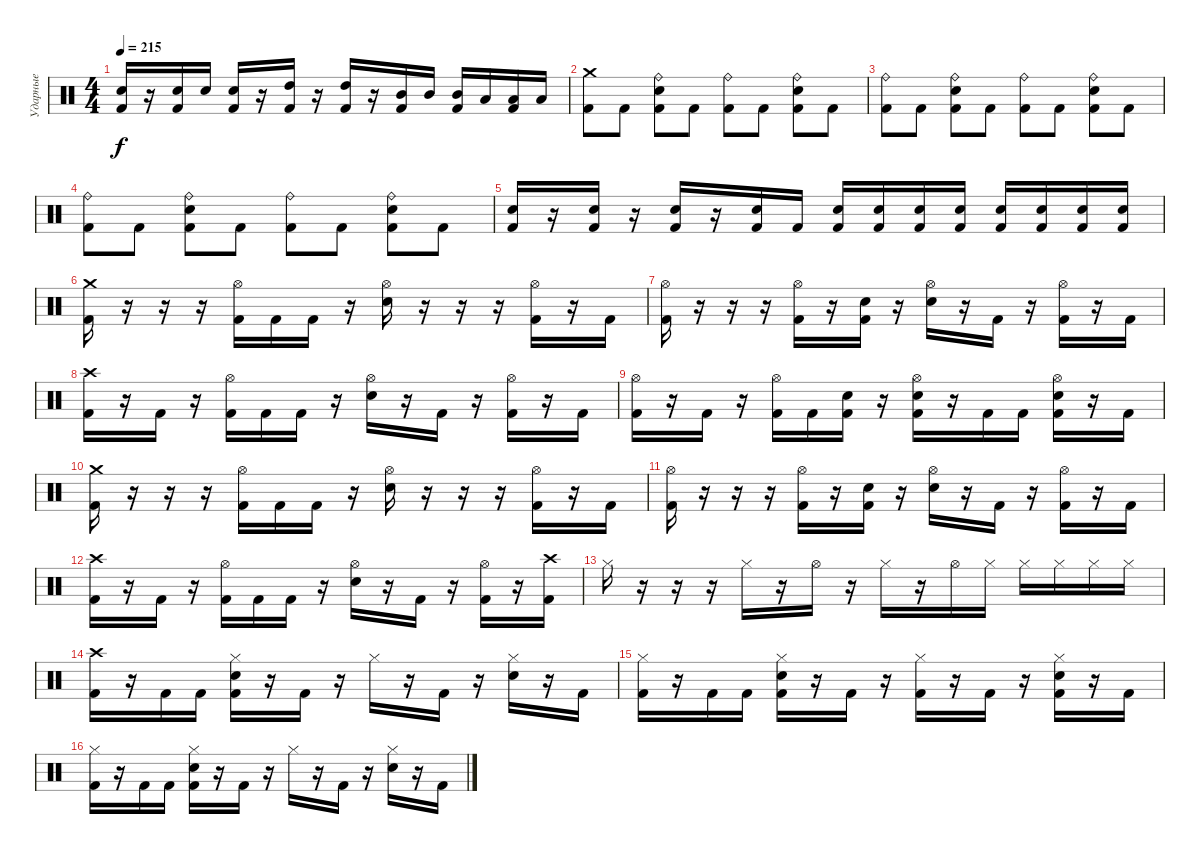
\track ("Ударные" "Ударные") {instrument percussion}
\staff {score}
\articulation defaults
\ts (4 4)
\tempo 215
\clef neutral
\ks c
("Snare (hit) 2" "Kick (hit) 2").16{dy f} r.16 ("Snare (hit) 2" "Kick (hit) 2").16 "Snare (hit) 2".16 ("Snare (hit) 2" "Kick (hit) 2").16 r.16 ("High Tom (hit)" "Kick (hit) 2").16 r.16 ("High Tom (hit)" "Kick (hit) 2").16 r.16 ("Mid Tom (hit)" "Kick (hit) 2").16 "Mid Tom (hit)".16 ("Mid Tom (hit)" "Kick (hit) 2").16 "Low Tom (hit)".16 ("Low Tom (hit)" "Kick (hit) 2").16 "Low Tom (hit)".16 |
("Crash medium (hit)" "Kick (hit) 2").8 "Kick (hit) 2".8 ("Ride (bell)" "Snare (hit) 2" "Kick (hit) 2").8 "Kick (hit) 2".8 ("Ride (bell)" "Kick (hit) 2").8 "Kick (hit) 2".8 ("Ride (bell)" "Snare (hit) 2" "Kick (hit) 2").8 "Kick (hit) 2".8 |
("Ride (bell)" "Kick (hit) 2").8 "Kick (hit) 2".8 ("Ride (bell)" "Snare (hit) 2" "Kick (hit) 2").8 "Kick (hit) 2".8 ("Ride (bell)" "Kick (hit) 2").8 "Kick (hit) 2".8 ("Ride (bell)" "Snare (hit) 2" "Kick (hit) 2").8 "Kick (hit) 2".8 |
("Ride (bell)" "Kick (hit) 2").8 "Kick (hit) 2".8 ("Ride (bell)" "Snare (hit) 2" "Kick (hit) 2").8 "Kick (hit) 2".8 ("Ride (bell)" "Kick (hit) 2").8 "Kick (hit) 2".8 ("Ride (bell)" "Snare (hit) 2" "Kick (hit) 2").8 "Kick (hit) 2".8 |
("Snare (hit) 2" "Kick (hit) 2").16 r.16 ("Snare (hit) 2" "Kick (hit) 2").16 r.16 ("Snare (hit) 2" "Kick (hit) 2").16 r.16 ("Snare (hit) 2" "Kick (hit) 2").16 "Kick (hit) 2".16 ("Snare (hit) 2" "Kick (hit) 2").16 ("Snare (hit) 2" "Kick (hit) 2").16 ("Snare (hit) 2" "Kick (hit) 2").16 ("Snare (hit) 2" "Kick (hit) 2").16 ("Snare (hit) 2" "Kick (hit) 2").16 ("Snare (hit) 2" "Kick (hit) 2").16 ("Snare (hit) 2" "Kick (hit) 2").16 ("Snare (hit) 2" "Kick (hit) 2").16 |
("Crash medium (hit)" "Kick (hit) 2").16 r.16 r.16 r.16 ("Hi-Hat (open)" "Kick (hit) 2").16 "Kick (hit) 2".16 "Kick (hit) 2".16 r.16 ("Hi-Hat (open)" "Snare (hit) 2").16 r.16 r.16 r.16 ("Hi-Hat (open)" "Kick (hit) 2").16 r.16 "Kick (hit) 2".16 |
("Hi-Hat (open)" "Kick (hit) 2").16 r.16 r.16 r.16 ("Hi-Hat (open)" "Kick (hit) 2").16 r.16 ("Snare (hit) 2" "Kick (hit) 2").16 r.16 ("Hi-Hat (open)" "Snare (hit) 2").16 r.16 "Kick (hit) 2".16 r.16 ("Hi-Hat (open)" "Kick (hit) 2").16 r.16 "Kick (hit) 2".16 |
("Crash high (hit)" "Kick (hit) 2").16 r.16 "Kick (hit) 2".16 r.16 ("Hi-Hat (open)" "Kick (hit) 2").16 "Kick (hit) 2".16 "Kick (hit) 2".16 r.16 ("Hi-Hat (open)" "Snare (hit) 2").16 r.16 "Kick (hit) 2".16 r.16 ("Hi-Hat (open)" "Kick (hit) 2").16 r.16 "Kick (hit) 2".16 |
("Hi-Hat (open)" "Kick (hit) 2").16 r.16 "Kick (hit) 2".16 r.16 ("Hi-Hat (open)" "Kick (hit) 2").16 "Kick (hit) 2".16 ("Snare (hit) 2" "Kick (hit) 2").16 r.16 ("Hi-Hat (open)" "Snare (hit) 2" "Kick (hit) 2").16 r.16 "Kick (hit) 2".16 "Kick (hit) 2".16 ("Hi-Hat (open)" "Snare (hit) 2" "Kick (hit) 2").16 r.16 "Kick (hit) 2".16 |
("Crash medium (hit)" "Kick (hit) 2").16 r.16 r.16 r.16 ("Hi-Hat (open)" "Kick (hit) 2").16 "Kick (hit) 2".16 "Kick (hit) 2".16 r.16 ("Hi-Hat (open)" "Snare (hit) 2").16 r.16 r.16 r.16 ("Hi-Hat (open)" "Kick (hit) 2").16 r.16 "Kick (hit) 2".16 |
("Hi-Hat (open)" "Kick (hit) 2").16 r.16 r.16 r.16 ("Hi-Hat (open)" "Kick (hit) 2").16 r.16 ("Snare (hit) 2" "Kick (hit) 2").16 r.16 ("Hi-Hat (open)" "Snare (hit) 2").16 r.16 "Kick (hit) 2".16 r.16 ("Hi-Hat (open)" "Kick (hit) 2").16 r.16 "Kick (hit) 2".16 |
("Crash high (hit)" "Kick (hit) 2").16 r.16 "Kick (hit) 2".16 r.16 ("Hi-Hat (open)" "Kick (hit) 2").16 "Kick (hit) 2".16 "Kick (hit) 2".16 r.16 ("Hi-Hat (open)" "Snare (hit) 2").16 r.16 "Kick (hit) 2".16 r.16 ("Hi-Hat (open)" "Kick (hit) 2").16 r.16 ("Crash high (hit)" "Kick (hit) 2").16 |
"Hi-Hat (closed)".16 r.16 r.16 r.16 "Hi-Hat (closed)".16 r.16 "Hi-Hat (open)".16 r.16 "Hi-Hat (closed)".16 r.16 "Hi-Hat (open)".16 "Hi-Hat (closed)".16 "Hi-Hat (closed)".16 "Hi-Hat (closed)".16 "Hi-Hat (closed)".16 "Hi-Hat (closed)".16 |
("Crash high (hit)" "Kick (hit) 2").16 r.16 "Kick (hit) 2".16 "Kick (hit) 2".16 ("Hi-Hat (closed)" "Snare (hit) 2" "Kick (hit) 2").16 r.16 "Kick (hit) 2".16 r.16 "Hi-Hat (closed)".16 r.16 "Kick (hit) 2".16 r.16 ("Hi-Hat (closed)" "Snare (hit) 2").16 r.16 "Kick (hit) 2".16 |
("Hi-Hat (closed)" "Kick (hit) 2").16 r.16 "Kick (hit) 2".16 "Kick (hit) 2".16 ("Hi-Hat (closed)" "Snare (hit) 2" "Kick (hit) 2").16 r.16 "Kick (hit) 2".16 r.16 ("Hi-Hat (closed)" "Kick (hit) 2").16 r.16 "Kick (hit) 2".16 r.16 ("Hi-Hat (closed)" "Snare (hit) 2" "Kick (hit) 2").16 r.16 "Kick (hit) 2".16 |
("Hi-Hat (closed)" "Kick (hit) 2").16 r.16 "Kick (hit) 2".16 "Kick (hit) 2".16 ("Hi-Hat (closed)" "Snare (hit) 2" "Kick (hit) 2").16 r.16 "Kick (hit) 2".16 r.16 "Hi-Hat (closed)".16 r.16 "Kick (hit) 2".16 r.16 ("Hi-Hat (closed)" "Snare (hit) 2").16 r.16 "Kick (hit) 2".16
